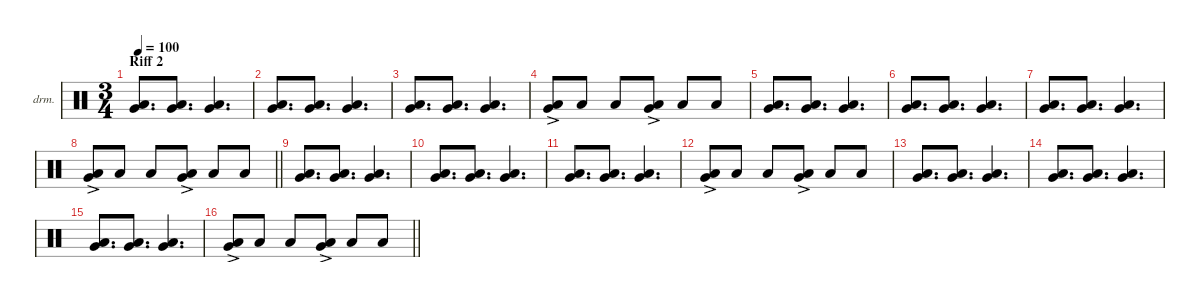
\defaultSystemsLayout 4
\hideDynamics
\bracketExtendMode nobrackets
\firstSystemTrackNameOrientation horizontal
\otherSystemsTrackNameOrientation horizontal
\track ("Dondervuyscht" "drm.") {instrument percussion}
\staff {score}
\articulation defaults
\ts (3 4)
\section ("" "Riff 2")
\tempo 100
\clef neutral
\ks c
("Very Low Tom (hit)" "Low Floor Tom (hit)").8{d dy f} ("Very Low Tom (hit)" "Low Floor Tom (hit)").8{d} ("Very Low Tom (hit)" "Low Floor Tom (hit)").4{d} |
("Very Low Tom (hit)" "Low Floor Tom (hit)").8{d} ("Very Low Tom (hit)" "Low Floor Tom (hit)").8{d} ("Very Low Tom (hit)" "Low Floor Tom (hit)").4{d} |
("Very Low Tom (hit)" "Low Floor Tom (hit)").8{d} ("Very Low Tom (hit)" "Low Floor Tom (hit)").8{d} ("Very Low Tom (hit)" "Low Floor Tom (hit)").4{d} |
("Very Low Tom (hit)"{ac} "Low Floor Tom (hit)"{ac}).8 "Low Floor Tom (hit)".8 "Low Floor Tom (hit)".8 ("Very Low Tom (hit)"{ac} "Low Floor Tom (hit)"{ac}).8 "Low Floor Tom (hit)".8 "Low Floor Tom (hit)".8 |
("Very Low Tom (hit)" "Low Floor Tom (hit)").8{d} ("Very Low Tom (hit)" "Low Floor Tom (hit)").8{d} ("Very Low Tom (hit)" "Low Floor Tom (hit)").4{d} |
("Very Low Tom (hit)" "Low Floor Tom (hit)").8{d} ("Very Low Tom (hit)" "Low Floor Tom (hit)").8{d} ("Very Low Tom (hit)" "Low Floor Tom (hit)").4{d} |
("Very Low Tom (hit)" "Low Floor Tom (hit)").8{d} ("Very Low Tom (hit)" "Low Floor Tom (hit)").8{d} ("Very Low Tom (hit)" "Low Floor Tom (hit)").4{d} |
\barLineRight lightlight
("Very Low Tom (hit)"{ac} "Low Floor Tom (hit)"{ac}).8 "Low Floor Tom (hit)".8 "Low Floor Tom (hit)".8 ("Very Low Tom (hit)"{ac} "Low Floor Tom (hit)"{ac}).8 "Low Floor Tom (hit)".8 "Low Floor Tom (hit)".8 |
("Very Low Tom (hit)" "Low Floor Tom (hit)").8{d} ("Very Low Tom (hit)" "Low Floor Tom (hit)").8{d} ("Very Low Tom (hit)" "Low Floor Tom (hit)").4{d} |
("Very Low Tom (hit)" "Low Floor Tom (hit)").8{d} ("Very Low Tom (hit)" "Low Floor Tom (hit)").8{d} ("Very Low Tom (hit)" "Low Floor Tom (hit)").4{d} |
("Very Low Tom (hit)" "Low Floor Tom (hit)").8{d} ("Very Low Tom (hit)" "Low Floor Tom (hit)").8{d} ("Very Low Tom (hit)" "Low Floor Tom (hit)").4{d} |
("Very Low Tom (hit)"{ac} "Low Floor Tom (hit)"{ac}).8 "Low Floor Tom (hit)".8 "Low Floor Tom (hit)".8 ("Very Low Tom (hit)"{ac} "Low Floor Tom (hit)"{ac}).8 "Low Floor Tom (hit)".8 "Low Floor Tom (hit)".8 |
("Very Low Tom (hit)" "Low Floor Tom (hit)").8{d} ("Very Low Tom (hit)" "Low Floor Tom (hit)").8{d} ("Very Low Tom (hit)" "Low Floor Tom (hit)").4{d} |
("Very Low Tom (hit)" "Low Floor Tom (hit)").8{d} ("Very Low Tom (hit)" "Low Floor Tom (hit)").8{d} ("Very Low Tom (hit)" "Low Floor Tom (hit)").4{d} |
("Very Low Tom (hit)" "Low Floor Tom (hit)").8{d} ("Very Low Tom (hit)" "Low Floor Tom (hit)").8{d} ("Very Low Tom (hit)" "Low Floor Tom (hit)").4{d} |
\barLineRight lightlight
("Very Low Tom (hit)"{ac} "Low Floor Tom (hit)"{ac}).8 "Low Floor Tom (hit)".8 "Low Floor Tom (hit)".8 ("Very Low Tom (hit)"{ac} "Low Floor Tom (hit)"{ac}).8 "Low Floor Tom (hit)".8 "Low Floor Tom (hit)".8
